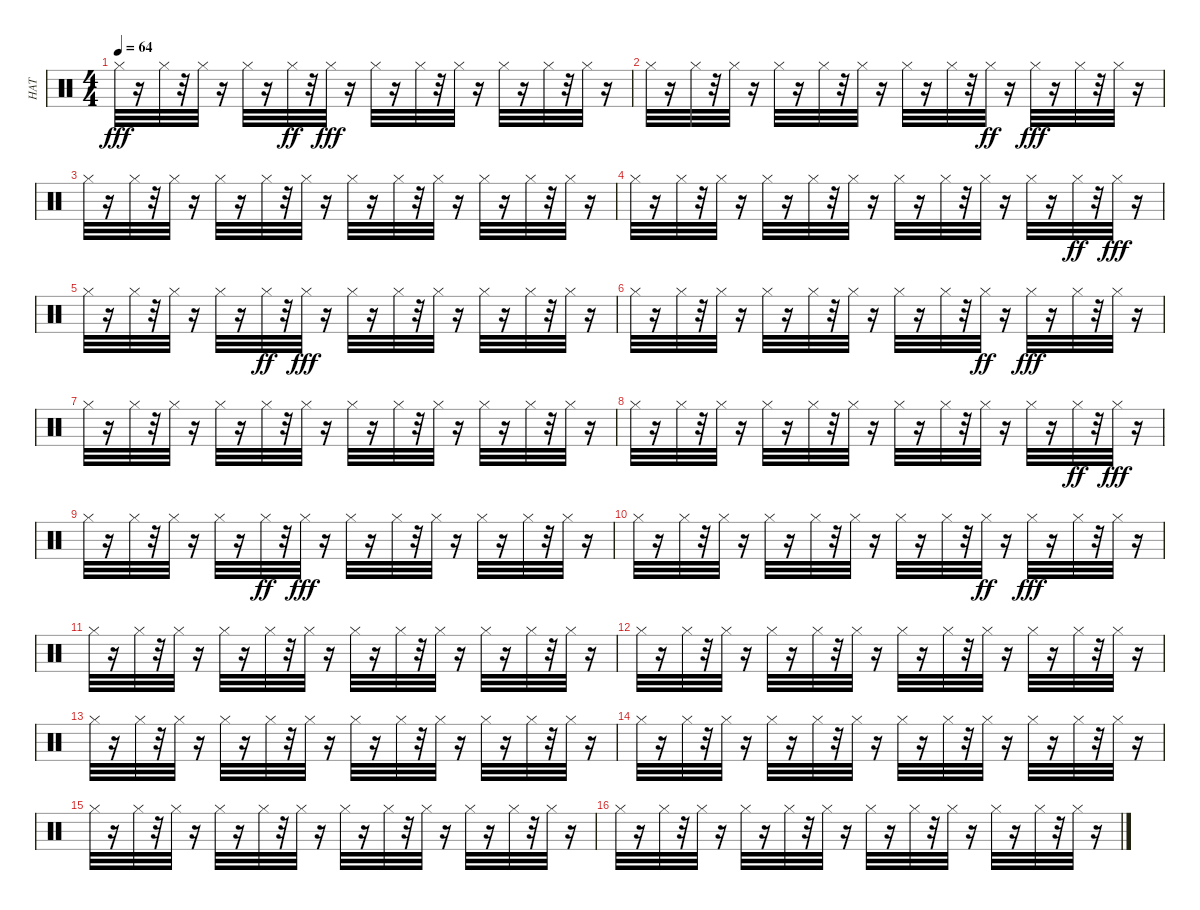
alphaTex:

\track ("HAT" "HAT") {instrument percussion}
\staff {score}
\articulation defaults
\ts (4 4)
\tempo 64
\clef neutral
\ks c "Hi-Hat (closed)".32{dy fff}
r.16 "Hi-Hat (closed)".32 r.32 "Hi-Hat (closed)".32 r.16 "Hi-Hat (closed)".32 r.16 "Hi-Hat (closed)".32{dy ff} r.32 "Hi-Hat (closed)".32{dy fff} r.16 "Hi-Hat (closed)".32 r.16 "Hi-Hat (closed)".32 r.32 "Hi-Hat (closed)".32 r.16 "Hi-Hat (closed)".32 r.16 "Hi-Hat (closed)".32 r.32 "Hi-Hat (closed)".32 r.16 |
"Hi-Hat (closed)".32 r.16 "Hi-Hat (closed)".32 r.32 "Hi-Hat (closed)".32 r.16 "Hi-Hat (closed)".32 r.16 "Hi-Hat (closed)".32 r.32 "Hi-Hat (closed)".32 r.16 "Hi-Hat (closed)".32 r.16 "Hi-Hat (closed)".32 r.32 "Hi-Hat (closed)".32{dy ff} r.16 "Hi-Hat (closed)".32{dy fff} r.16 "Hi-Hat (closed)".32 r.32 "Hi-Hat (closed)".32 r.16 |
"Hi-Hat (closed)".32 r.16 "Hi-Hat (closed)".32 r.32 "Hi-Hat (closed)".32 r.16 "Hi-Hat (closed)".32 r.16 "Hi-Hat (closed)".32 r.32 "Hi-Hat (closed)".32 r.16 "Hi-Hat (closed)".32 r.16 "Hi-Hat (closed)".32 r.32 "Hi-Hat (closed)".32 r.16 "Hi-Hat (closed)".32 r.16 "Hi-Hat (closed)".32 r.32 "Hi-Hat (closed)".32 r.16 |
"Hi-Hat (closed)".32 r.16 "Hi-Hat (closed)".32 r.32 "Hi-Hat (closed)".32 r.16 "Hi-Hat (closed)".32 r.16 "Hi-Hat (closed)".32 r.32 "Hi-Hat (closed)".32 r.16 "Hi-Hat (closed)".32 r.16 "Hi-Hat (closed)".32 r.32 "Hi-Hat (closed)".32 r.16 "Hi-Hat (closed)".32 r.16 "Hi-Hat (closed)".32{dy ff} r.32 "Hi-Hat (closed)".32{dy fff} r.16 |
"Hi-Hat (closed)".32 r.16 "Hi-Hat (closed)".32 r.32 "Hi-Hat (closed)".32 r.16 "Hi-Hat (closed)".32 r.16 "Hi-Hat (closed)".32{dy ff} r.32 "Hi-Hat (closed)".32{dy fff} r.16 "Hi-Hat (closed)".32 r.16 "Hi-Hat (closed)".32 r.32 "Hi-Hat (closed)".32 r.16 "Hi-Hat (closed)".32 r.16 "Hi-Hat (closed)".32 r.32 "Hi-Hat (closed)".32 r.16 |
"Hi-Hat (closed)".32 r.16 "Hi-Hat (closed)".32 r.32 "Hi-Hat (closed)".32 r.16 "Hi-Hat (closed)".32 r.16 "Hi-Hat (closed)".32 r.32 "Hi-Hat (closed)".32 r.16 "Hi-Hat (closed)".32 r.16 "Hi-Hat (closed)".32 r.32 "Hi-Hat (closed)".32{dy ff} r.16 "Hi-Hat (closed)".32{dy fff} r.16 "Hi-Hat (closed)".32 r.32 "Hi-Hat (closed)".32 r.16 |
"Hi-Hat (closed)".32 r.16 "Hi-Hat (closed)".32 r.32 "Hi-Hat (closed)".32 r.16 "Hi-Hat (closed)".32 r.16 "Hi-Hat (closed)".32 r.32 "Hi-Hat (closed)".32 r.16 "Hi-Hat (closed)".32 r.16 "Hi-Hat (closed)".32 r.32 "Hi-Hat (closed)".32 r.16 "Hi-Hat (closed)".32 r.16 "Hi-Hat (closed)".32 r.32 "Hi-Hat (closed)".32 r.16 |
"Hi-Hat (closed)".32 r.16 "Hi-Hat (closed)".32 r.32 "Hi-Hat (closed)".32 r.16 "Hi-Hat (closed)".32 r.16 "Hi-Hat (closed)".32 r.32 "Hi-Hat (closed)".32 r.16 "Hi-Hat (closed)".32 r.16 "Hi-Hat (closed)".32 r.32 "Hi-Hat (closed)".32 r.16 "Hi-Hat (closed)".32 r.16 "Hi-Hat (closed)".32{dy ff} r.32 "Hi-Hat (closed)".32{dy fff} r.16 |
"Hi-Hat (closed)".32 r.16 "Hi-Hat (closed)".32 r.32 "Hi-Hat (closed)".32 r.16 "Hi-Hat (closed)".32 r.16 "Hi-Hat (closed)".32{dy ff} r.32 "Hi-Hat (closed)".32{dy fff} r.16 "Hi-Hat (closed)".32 r.16 "Hi-Hat (closed)".32 r.32 "Hi-Hat (closed)".32 r.16 "Hi-Hat (closed)".32 r.16 "Hi-Hat (closed)".32 r.32 "Hi-Hat (closed)".32 r.16 |
"Hi-Hat (closed)".32 r.16 "Hi-Hat (closed)".32 r.32 "Hi-Hat (closed)".32 r.16 "Hi-Hat (closed)".32 r.16 "Hi-Hat (closed)".32 r.32 "Hi-Hat (closed)".32 r.16 "Hi-Hat (closed)".32 r.16 "Hi-Hat (closed)".32 r.32 "Hi-Hat (closed)".32{dy ff} r.16 "Hi-Hat (closed)".32{dy fff} r.16 "Hi-Hat (closed)".32 r.32 "Hi-Hat (closed)".32 r.16 |
"Hi-Hat (closed)".32 r.16 "Hi-Hat (closed)".32 r.32 "Hi-Hat (closed)".32 r.16 "Hi-Hat (closed)".32 r.16 "Hi-Hat (closed)".32 r.32 "Hi-Hat (closed)".32 r.16 "Hi-Hat (closed)".32 r.16 "Hi-Hat (closed)".32 r.32 "Hi-Hat (closed)".32 r.16 "Hi-Hat (closed)".32 r.16 "Hi-Hat (closed)".32 r.32 "Hi-Hat (closed)".32 r.16 |
"Hi-Hat (closed)".32 r.16 "Hi-Hat (closed)".32 r.32 "Hi-Hat (closed)".32 r.16 "Hi-Hat (closed)".32 r.16 "Hi-Hat (closed)".32 r.32 "Hi-Hat (closed)".32 r.16 "Hi-Hat (closed)".32 r.16 "Hi-Hat (closed)".32 r.32 "Hi-Hat (closed)".32 r.16 "Hi-Hat (closed)".32 r.16 "Hi-Hat (closed)".32 r.32 "Hi-Hat (closed)".32 r.16 |
"Hi-Hat (closed)".32 r.16 "Hi-Hat (closed)".32 r.32 "Hi-Hat (closed)".32 r.16 "Hi-Hat (closed)".32 r.16 "Hi-Hat (closed)".32 r.32 "Hi-Hat (closed)".32 r.16 "Hi-Hat (closed)".32 r.16 "Hi-Hat (closed)".32 r.32 "Hi-Hat (closed)".32 r.16 "Hi-Hat (closed)".32 r.16 "Hi-Hat (closed)".32 r.32 "Hi-Hat (closed)".32 r.16 |
"Hi-Hat (closed)".32 r.16 "Hi-Hat (closed)".32 r.32 "Hi-Hat (closed)".32 r.16 "Hi-Hat (closed)".32 r.16 "Hi-Hat (closed)".32 r.32 "Hi-Hat (closed)".32 r.16 "Hi-Hat (closed)".32 r.16 "Hi-Hat (closed)".32 r.32 "Hi-Hat (closed)".32 r.16 "Hi-Hat (closed)".32 r.16 "Hi-Hat (closed)".32 r.32 "Hi-Hat (closed)".32 r.16 |
"Hi-Hat (closed)".32 r.16 "Hi-Hat (closed)".32 r.32 "Hi-Hat (closed)".32 r.16 "Hi-Hat (closed)".32 r.16 "Hi-Hat (closed)".32 r.32 "Hi-Hat (closed)".32 r.16 "Hi-Hat (closed)".32 r.16 "Hi-Hat (closed)".32 r.32 "Hi-Hat (closed)".32 r.16 "Hi-Hat (closed)".32 r.16 "Hi-Hat (closed)".32 r.32 "Hi-Hat (closed)".32 r.16 |
"Hi-Hat (closed)".32 r.16 "Hi-Hat (closed)".32 r.32 "Hi-Hat (closed)".32 r.16 "Hi-Hat (closed)".32 r.16 "Hi-Hat (closed)".32 r.32 "Hi-Hat (closed)".32 r.16 "Hi-Hat (closed)".32 r.16 "Hi-Hat (closed)".32 r.32 "Hi-Hat (closed)".32 r.16 "Hi-Hat (closed)".32 r.16 "Hi-Hat (closed)".32 r.32 "Hi-Hat (closed)".32 r.16
